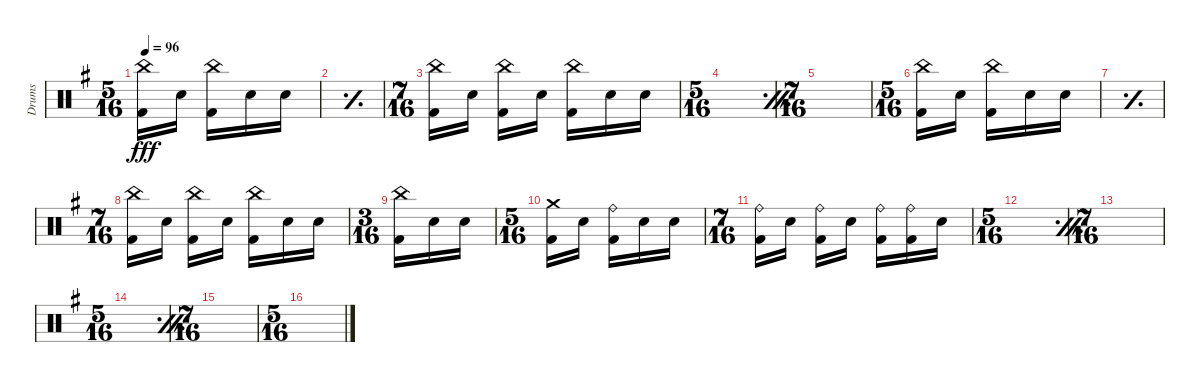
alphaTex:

\defaultSystemsLayout 4
\bracketExtendMode groupsimilarinstruments
\otherSystemsTrackNameOrientation horizontal
\track ("Drumkit" "Drums") {multiBarRest instrument percussion}
\staff {score}
\articulation defaults
\ts (5 16)
\beaming (8 3 3 1)
\tempo 96
\clef neutral
\ks g
("China (hit)"{acc forcenatural} "Kick (hit) 2"{acc forcenatural}).16{dy fff} "Snare (hit) 2"{acc forcenatural}.16{beam split} ("China (hit)"{acc forcenatural} "Kick (hit) 2"{acc forcenatural}).16 "Snare (hit) 2"{acc forcenatural}.16 "Snare (hit) 2"{acc forcenatural}.16 |
\simile simple
|
\ts (7 16)
\beaming (8 3 3 1)
\simile none
("China (hit)"{acc forcenatural} "Kick (hit) 2"{acc forcenatural}).16{beam merge} "Snare (hit) 2"{acc forcenatural}.16{beam split} ("China (hit)"{acc forcenatural} "Kick (hit) 2"{acc forcenatural}).16{beam merge} "Snare (hit) 2"{acc forcenatural}.16{beam split} ("China (hit)"{acc forcenatural} "Kick (hit) 2"{acc forcenatural}).16{beam merge} "Snare (hit) 2"{acc forcenatural}.16{beam merge} "Snare (hit) 2"{acc forcenatural}.16 |
\ts (5 16)
\beaming (8 3 3 1)
\simile firstofdouble
|
\ts (7 16)
\beaming (8 3 3 1)
\simile secondofdouble
|
\ts (5 16)
\beaming (8 3 3 1)
\simile none
("China (hit)"{acc forcenatural} "Kick (hit) 2"{acc forcenatural}).16 "Snare (hit) 2"{acc forcenatural}.16{beam split} ("China (hit)"{acc forcenatural} "Kick (hit) 2"{acc forcenatural}).16 "Snare (hit) 2"{acc forcenatural}.16 "Snare (hit) 2"{acc forcenatural}.16 |
\simile simple
|
\ts (7 16)
\beaming (8 3 3 1)
\simile none
("China (hit)"{acc forcenatural} "Kick (hit) 2"{acc forcenatural}).16{beam merge} "Snare (hit) 2"{acc forcenatural}.16{beam split} ("China (hit)"{acc forcenatural} "Kick (hit) 2"{acc forcenatural}).16{beam merge} "Snare (hit) 2"{acc forcenatural}.16{beam split} ("China (hit)"{acc forcenatural} "Kick (hit) 2"{acc forcenatural}).16{beam merge} "Snare (hit) 2"{acc forcenatural}.16{beam merge} "Snare (hit) 2"{acc forcenatural}.16 |
\ts (3 16)
\beaming (8 3 3 1)
("China (hit)"{acc forcenatural} "Kick (hit) 2"{acc forcenatural}).16 "Snare (hit) 2"{acc forcenatural}.16 "Snare (hit) 2"{acc forcenatural}.16 |
\ts (5 16)
\beaming (8 3 3 1)
("Kick (hit) 2"{acc forcenatural} "Crash medium (hit)"{acc forcenatural}).16 "Snare (hit) 2"{acc forcenatural}.16{beam split} ("Kick (hit) 2"{acc forcenatural} "Ride (bell)"{acc forcenatural}).16 "Snare (hit) 2"{acc forcenatural}.16 "Snare (hit) 2"{acc forcenatural}.16 |
\ts (7 16)
\beaming (8 3 3 1)
("Ride (bell)"{acc forcenatural} "Kick (hit) 2"{acc forcenatural}).16{beam merge} "Snare (hit) 2"{acc forcenatural}.16{beam split} ("Ride (bell)"{acc forcenatural} "Kick (hit) 2"{acc forcenatural}).16{beam merge} "Snare (hit) 2"{acc forcenatural}.16{beam split} ("Ride (bell)"{acc forcenatural} "Kick (hit) 2"{acc forcenatural}).16{beam merge} ("Ride (bell)"{acc forcenatural} "Kick (hit) 2"{acc forcenatural}).16{beam merge} "Snare (hit) 2"{acc forcenatural}.16 |
\ts (5 16)
\beaming (8 3 3 1)
\simile firstofdouble
|
\ts (7 16)
\beaming (8 3 3 1)
\simile secondofdouble
|
\ts (5 16)
\beaming (8 3 3 1)
\simile firstofdouble
|
\ts (7 16)
\beaming (8 3 3 1)
\simile secondofdouble
|
\ts (5 16)
\beaming (8 3 3 1)
\simile firstofdouble
